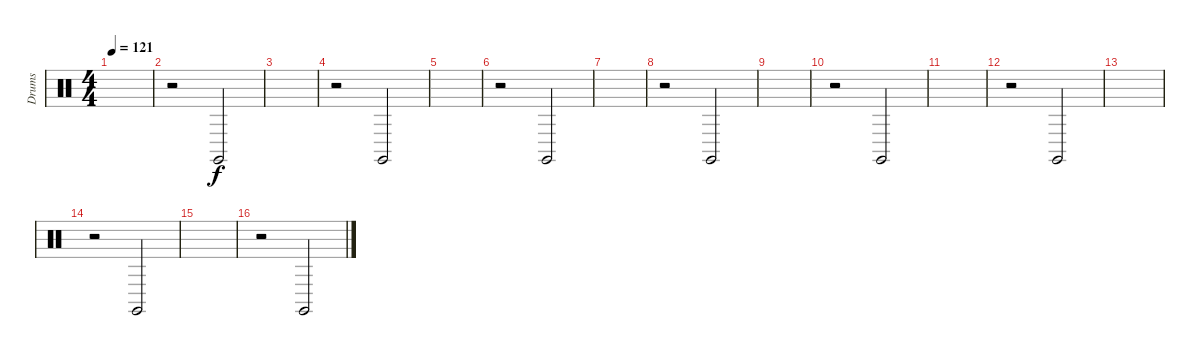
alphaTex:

\track ("Drums" "Drums") {instrument percussion}
\staff {score}
\articulation defaults
\ts (4 4)
\tempo 121
\clef neutral
\ks c
|
r.2 "Claves (hit)".2 |
|
r.2 "Claves (hit)".2 |
|
r.2 "Claves (hit)".2 |
|
r.2 "Claves (hit)".2 |
|
r.2 "Claves (hit)".2 |
|
r.2 "Claves (hit)".2 |
|
r.2 "Claves (hit)".2 |
|
r.2 "Claves (hit)".2
